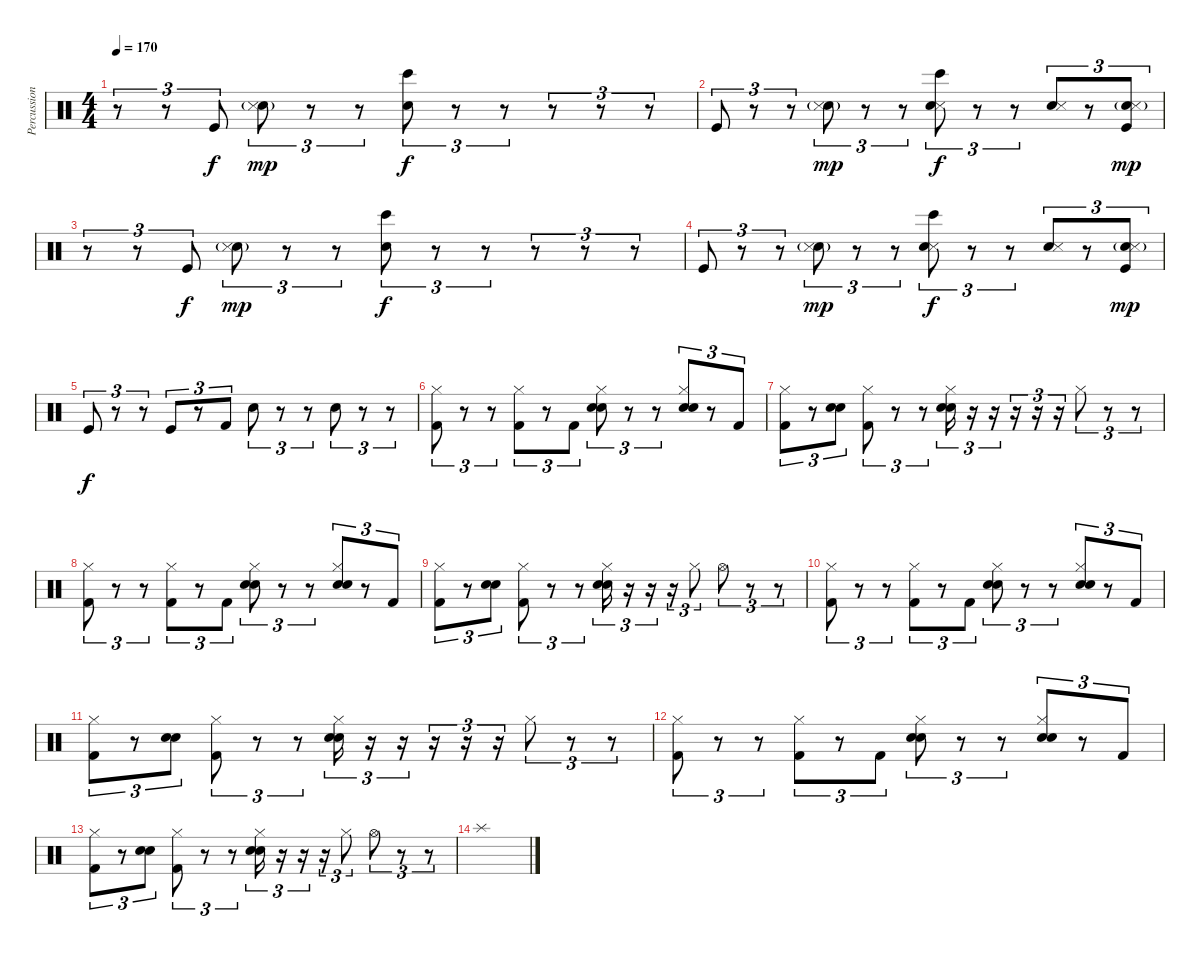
\track ("Percussion" "Percussion") {instrument percussion}
\staff {score}
\articulation defaults
\ts (4 4)
\tempo 170
\clef neutral
\ks c
r.8{tu (3 2) dy mp} r.8{tu (3 2)} "Kick (hit)".8{tu (3 2) dy f} ("Hand Clap (hit)"{g} "Snare (side stick) 3"{g}).8{tu (3 2) dy mp} r.8{tu (3 2)} r.8{tu (3 2)} ("Hand Clap (hit)" "Bongo High (hit)").8{tu (3 2) dy f} r.8{tu (3 2)} r.8{tu (3 2)} r.8{tu (3 2)} r.8{tu (3 2)} r.8{tu (3 2)} |
"Kick (hit)".8{tu (3 2)} r.8{tu (3 2)} r.8{tu (3 2)} ("Hand Clap (hit)"{g} "Snare (side stick) 3"{g}).8{tu (3 2) dy mp} r.8{tu (3 2)} r.8{tu (3 2)} ("Snare (side stick) 3" "Hand Clap (hit)" "Bongo High (hit)").8{tu (3 2) dy f} r.8{tu (3 2)} r.8{tu (3 2)} ("Hand Clap (hit)" "Snare (side stick) 3").8{tu (3 2)} r.8{tu (3 2)} ("Hand Clap (hit)"{g} "Snare (side stick) 3"{g} "Kick (hit)").8{tu (3 2) dy mp} |
r.8{tu (3 2)} r.8{tu (3 2)} "Kick (hit)".8{tu (3 2) dy f} ("Hand Clap (hit)"{g} "Snare (side stick) 3"{g}).8{tu (3 2) dy mp} r.8{tu (3 2)} r.8{tu (3 2)} ("Hand Clap (hit)" "Bongo High (hit)").8{tu (3 2) dy f} r.8{tu (3 2)} r.8{tu (3 2)} r.8{tu (3 2)} r.8{tu (3 2)} r.8{tu (3 2)} |
"Kick (hit)".8{tu (3 2)} r.8{tu (3 2)} r.8{tu (3 2)} ("Hand Clap (hit)"{g} "Snare (side stick) 3"{g}).8{tu (3 2) dy mp} r.8{tu (3 2)} r.8{tu (3 2)} ("Snare (side stick) 3" "Hand Clap (hit)" "Bongo High (hit)").8{tu (3 2) dy f} r.8{tu (3 2)} r.8{tu (3 2)} ("Hand Clap (hit)" "Snare (side stick) 3").8{tu (3 2)} r.8{tu (3 2)} ("Hand Clap (hit)"{g} "Snare (side stick) 3"{g} "Kick (hit)").8{tu (3 2) dy mp} |
"Kick (hit)".8{tu (3 2) dy f} r.8{tu (3 2)} r.8{tu (3 2)} "Kick (hit)".8{tu (3 2)} r.8{tu (3 2)} "Kick (hit) 2".8{tu (3 2)} "Snare (hit) 2".8{tu (3 2)} r.8{tu (3 2)} r.8{tu (3 2)} "Snare (hit) 2".8{tu (3 2)} r.8{tu (3 2)} r.8{tu (3 2)} |
("Hi-Hat (closed)" "Kick (hit) 2").8{tu (3 2)} r.8{tu (3 2)} r.8{tu (3 2)} ("Hi-Hat (closed)" "Kick (hit) 2").8{tu (3 2)} r.8{tu (3 2)} "Kick (hit) 2".8{tu (3 2)} ("Hi-Hat (closed)" "Hand Clap (hit)" "Electric Snare (hit)").8{tu (3 2)} r.8{tu (3 2)} r.8{tu (3 2)} ("Hi-Hat (closed)" "Electric Snare (hit)" "Hand Clap (hit)").8{tu (3 2)} r.8{tu (3 2)} "Kick (hit) 2".8{tu (3 2)} |
("Hi-Hat (closed)" "Kick (hit) 2").8{tu (3 2)} r.8{tu (3 2)} ("Electric Snare (hit)" "Hand Clap (hit)").8{tu (3 2)} ("Hi-Hat (closed)" "Kick (hit) 2").8{tu (3 2)} r.8{tu (3 2)} r.8{tu (3 2)} ("Hi-Hat (closed)" "Hand Clap (hit)" "Electric Snare (hit)").16{tu (3 2)} r.16{tu (3 2)} r.16{tu (3 2)} r.16{tu (3 2)} r.16{tu (3 2)} r.16{tu (3 2)} "Hi-Hat (closed)".8{tu (3 2)} r.8{tu (3 2)} r.8{tu (3 2)} |
("Hi-Hat (closed)" "Kick (hit) 2").8{tu (3 2)} r.8{tu (3 2)} r.8{tu (3 2)} ("Hi-Hat (closed)" "Kick (hit) 2").8{tu (3 2)} r.8{tu (3 2)} "Kick (hit) 2".8{tu (3 2)} ("Hi-Hat (closed)" "Hand Clap (hit)" "Electric Snare (hit)").8{tu (3 2)} r.8{tu (3 2)} r.8{tu (3 2)} ("Hi-Hat (closed)" "Electric Snare (hit)" "Hand Clap (hit)").8{tu (3 2)} r.8{tu (3 2)} "Kick (hit) 2".8{tu (3 2)} |
("Hi-Hat (closed)" "Kick (hit) 2").8{tu (3 2)} r.8{tu (3 2)} ("Electric Snare (hit)" "Hand Clap (hit)").8{tu (3 2)} ("Hi-Hat (closed)" "Kick (hit) 2").8{tu (3 2)} r.8{tu (3 2)} r.8{tu (3 2)} ("Hi-Hat (closed)" "Hand Clap (hit)" "Electric Snare (hit)").16{tu (3 2)} r.16{tu (3 2)} r.16{tu (3 2)} r.16{tu (3 2)} "Hi-Hat (closed)".8{tu (3 2)} "Hi-Hat (open)".8{tu (3 2)} r.8{tu (3 2)} r.8{tu (3 2)} |
("Hi-Hat (closed)" "Kick (hit) 2").8{tu (3 2)} r.8{tu (3 2)} r.8{tu (3 2)} ("Hi-Hat (closed)" "Kick (hit) 2").8{tu (3 2)} r.8{tu (3 2)} "Kick (hit) 2".8{tu (3 2)} ("Hi-Hat (closed)" "Hand Clap (hit)" "Electric Snare (hit)").8{tu (3 2)} r.8{tu (3 2)} r.8{tu (3 2)} ("Hi-Hat (closed)" "Electric Snare (hit)" "Hand Clap (hit)").8{tu (3 2)} r.8{tu (3 2)} "Kick (hit) 2".8{tu (3 2)} |
("Hi-Hat (closed)" "Kick (hit) 2").8{tu (3 2)} r.8{tu (3 2)} ("Electric Snare (hit)" "Hand Clap (hit)").8{tu (3 2)} ("Hi-Hat (closed)" "Kick (hit) 2").8{tu (3 2)} r.8{tu (3 2)} r.8{tu (3 2)} ("Hi-Hat (closed)" "Hand Clap (hit)" "Electric Snare (hit)").16{tu (3 2)} r.16{tu (3 2)} r.16{tu (3 2)} r.16{tu (3 2)} r.16{tu (3 2)} r.16{tu (3 2)} "Hi-Hat (closed)".8{tu (3 2)} r.8{tu (3 2)} r.8{tu (3 2)} |
("Hi-Hat (closed)" "Kick (hit) 2").8{tu (3 2)} r.8{tu (3 2)} r.8{tu (3 2)} ("Hi-Hat (closed)" "Kick (hit) 2").8{tu (3 2)} r.8{tu (3 2)} "Kick (hit) 2".8{tu (3 2)} ("Hi-Hat (closed)" "Hand Clap (hit)" "Electric Snare (hit)").8{tu (3 2)} r.8{tu (3 2)} r.8{tu (3 2)} ("Hi-Hat (closed)" "Electric Snare (hit)" "Hand Clap (hit)").8{tu (3 2)} r.8{tu (3 2)} "Kick (hit) 2".8{tu (3 2)} |
("Hi-Hat (closed)" "Kick (hit) 2").8{tu (3 2)} r.8{tu (3 2)} ("Electric Snare (hit)" "Hand Clap (hit)").8{tu (3 2)} ("Hi-Hat (closed)" "Kick (hit) 2").8{tu (3 2)} r.8{tu (3 2)} r.8{tu (3 2)} ("Hi-Hat (closed)" "Hand Clap (hit)" "Electric Snare (hit)").16{tu (3 2)} r.16{tu (3 2)} r.16{tu (3 2)} r.16{tu (3 2)} "Hi-Hat (closed)".8{tu (3 2)} "Hi-Hat (open)".8{tu (3 2)} r.8{tu (3 2)} r.8{tu (3 2)} |
"Splash (hit)".1
